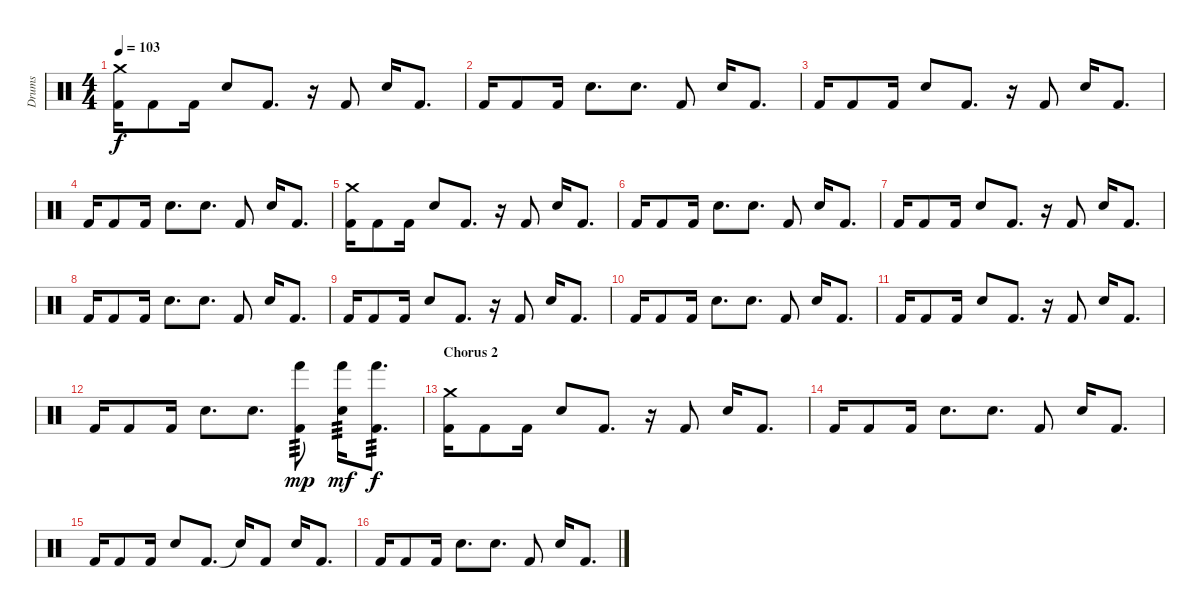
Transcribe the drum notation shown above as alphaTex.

\track ("Drums" "Drums") {instrument percussion}
\staff {score}
\articulation defaults
\ts (4 4)
\tempo 103
\clef neutral
\ks c
("Kick (hit) 2" "Crash medium (hit)").16{dy f} "Kick (hit) 2".8 "Kick (hit) 2".16 "Electric Snare (hit)".8 "Kick (hit) 2".8{d} r.16 "Kick (hit) 2".8 "Electric Snare (hit)".16 "Kick (hit) 2".8{d} |
"Kick (hit) 2".16 "Kick (hit) 2".8 "Kick (hit) 2".16 "Electric Snare (hit)".8{d} "Electric Snare (hit)".8{d} "Kick (hit) 2".8 "Electric Snare (hit)".16 "Kick (hit) 2".8{d} |
"Kick (hit) 2".16 "Kick (hit) 2".8 "Kick (hit) 2".16 "Electric Snare (hit)".8 "Kick (hit) 2".8{d} r.16 "Kick (hit) 2".8 "Electric Snare (hit)".16 "Kick (hit) 2".8{d} |
"Kick (hit) 2".16 "Kick (hit) 2".8 "Kick (hit) 2".16 "Electric Snare (hit)".8{d} "Electric Snare (hit)".8{d} "Kick (hit) 2".8 "Electric Snare (hit)".16 "Kick (hit) 2".8{d} |
("Kick (hit) 2" "Crash medium (hit)").16 "Kick (hit) 2".8 "Kick (hit) 2".16 "Electric Snare (hit)".8 "Kick (hit) 2".8{d} r.16 "Kick (hit) 2".8 "Electric Snare (hit)".16 "Kick (hit) 2".8{d} |
"Kick (hit) 2".16 "Kick (hit) 2".8 "Kick (hit) 2".16 "Electric Snare (hit)".8{d} "Electric Snare (hit)".8{d} "Kick (hit) 2".8 "Electric Snare (hit)".16 "Kick (hit) 2".8{d} |
"Kick (hit) 2".16 "Kick (hit) 2".8 "Kick (hit) 2".16 "Electric Snare (hit)".8 "Kick (hit) 2".8{d} r.16 "Kick (hit) 2".8 "Electric Snare (hit)".16 "Kick (hit) 2".8{d} |
"Kick (hit) 2".16 "Kick (hit) 2".8 "Kick (hit) 2".16 "Electric Snare (hit)".8{d} "Electric Snare (hit)".8{d} "Kick (hit) 2".8 "Electric Snare (hit)".16 "Kick (hit) 2".8{d} |
"Kick (hit) 2".16 "Kick (hit) 2".8 "Kick (hit) 2".16 "Electric Snare (hit)".8 "Kick (hit) 2".8{d} r.16 "Kick (hit) 2".8 "Electric Snare (hit)".16 "Kick (hit) 2".8{d} |
"Kick (hit) 2".16 "Kick (hit) 2".8 "Kick (hit) 2".16 "Electric Snare (hit)".8{d} "Electric Snare (hit)".8{d} "Kick (hit) 2".8 "Electric Snare (hit)".16 "Kick (hit) 2".8{d} |
"Kick (hit) 2".16 "Kick (hit) 2".8 "Kick (hit) 2".16 "Electric Snare (hit)".8 "Kick (hit) 2".8{d} r.16 "Kick (hit) 2".8 "Electric Snare (hit)".16 "Kick (hit) 2".8{d} |
"Kick (hit) 2".16 "Kick (hit) 2".8 "Kick (hit) 2".16 "Electric Snare (hit)".8{d} "Electric Snare (hit)".8{d} ("Kick (hit) 2" "Hand (hit)").8{tp 3 dy mp} ("Electric Snare (hit)" "Hand (hit)").16{tp 3 dy mf} ("Kick (hit) 2" "Hand (hit)").8{d tp 3 dy f} |
\section ("" "Chorus 2")
("Kick (hit) 2" "Crash medium (hit)").16 "Kick (hit) 2".8 "Kick (hit) 2".16 "Electric Snare (hit)".8 "Kick (hit) 2".8{d} r.16 "Kick (hit) 2".8 "Electric Snare (hit)".16 "Kick (hit) 2".8{d} |
"Kick (hit) 2".16 "Kick (hit) 2".8 "Kick (hit) 2".16 "Electric Snare (hit)".8{d} "Electric Snare (hit)".8{d} "Kick (hit) 2".8 "Electric Snare (hit)".16 "Kick (hit) 2".8{d} |
"Kick (hit) 2".16 "Kick (hit) 2".8 "Kick (hit) 2".16 "Electric Snare (hit)".8 "Kick (hit) 2".8{d} "Snare (hit)"{t}.16 "Kick (hit) 2".8 "Electric Snare (hit)".16 "Kick (hit) 2".8{d} |
"Kick (hit) 2".16 "Kick (hit) 2".8 "Kick (hit) 2".16 "Electric Snare (hit)".8{d} "Electric Snare (hit)".8{d} "Kick (hit) 2".8 "Electric Snare (hit)".16 "Kick (hit) 2".8{d}
